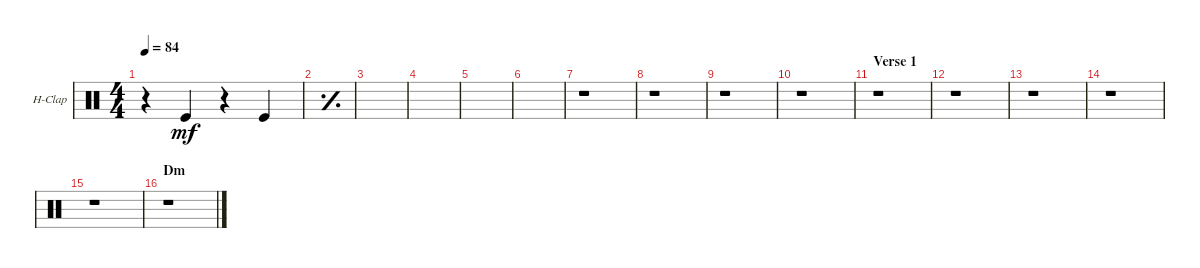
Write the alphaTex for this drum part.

\defaultSystemsLayout 4
\bracketExtendMode groupsimilarinstruments
\firstSystemTrackNameOrientation horizontal
\otherSystemsTrackNameOrientation horizontal
\track ("Hand Clap" "H-Clap") {instrument percussion}
\staff {score}
\articulation defaults
\ts (4 4)
\tempo 84
\clef neutral
\scale
0.472222
\ks c
r.4{dy mf} "Kick (hit)".4 r.4 "Kick (hit)".4 |
\simile simple
\scale
0.263889 |
\scale
0.263889 |
\scale
0.333333 |
\scale
0.333333 |
\scale
0.333333 |
\simile none
\scale
0.333333 r.1 |
\scale
0.333333 r.1 |
\scale
0.333333 r.1 |
r.1 |
\section ("" "Verse 1")
r.1 |
r.1 |
r.1 |
r.1 |
r.1 |
\section ("" "Dm")
r.1
